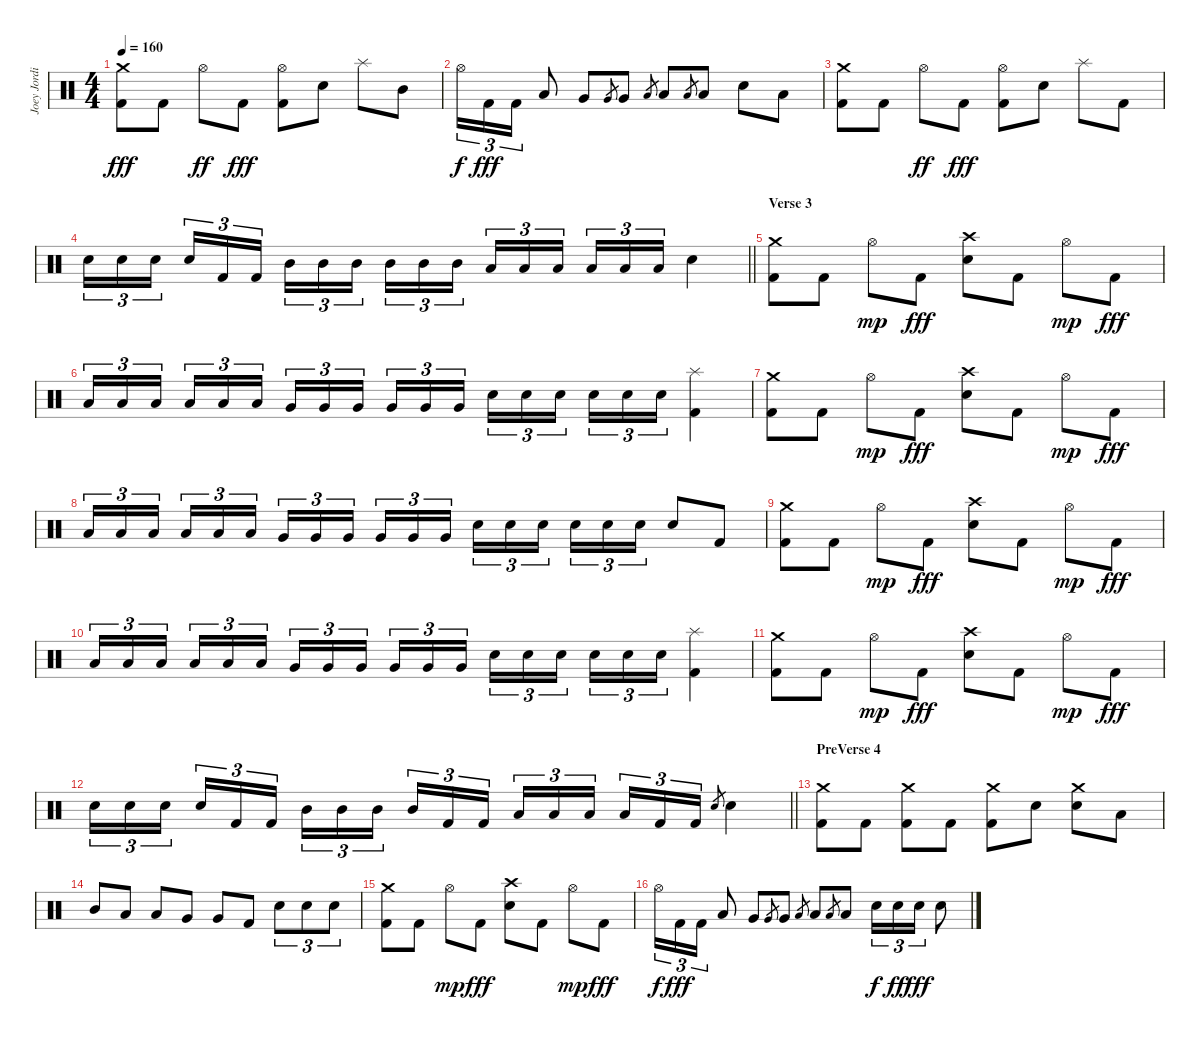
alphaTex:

\track ("Joey Jordison" "Joey Jordi") {instrument percussion}
\staff {score}
\articulation defaults
\ts (4 4)
\tempo 160
\clef neutral
\ks c
("Crash medium (hit)" "Kick (hit) 2").8{dy fff} "Kick (hit) 2".8 "Hi-Hat (open)".8{dy ff} "Kick (hit) 2".8{dy fff} ("Hi-Hat (open)" "Kick (hit) 2").8 "Electric Snare (hit)".8 "Splash (hit)".8 "Mid Tom (hit)".8 |
"Hi-Hat (open)".16{tu (3 2) dy f} "Kick (hit) 2".16{tu (3 2) dy fff} "Kick (hit) 2".16{tu (3 2)} "Low Tom (hit)".8 "Very Low Tom (hit)".8 "Very Low Tom (hit)".8{gr} "Very Low Tom (hit)".8 "Low Floor Tom (hit)".8{gr} "Low Floor Tom (hit)".8 "Low Floor Tom (hit)".8{gr} "Low Floor Tom (hit)".8 "Electric Snare (hit)".8 "Low Floor Tom (hit)".8 |
("Crash medium (hit)" "Kick (hit) 2").8 "Kick (hit) 2".8 "Hi-Hat (open)".8{dy ff} "Kick (hit) 2".8{dy fff} ("Hi-Hat (open)" "Kick (hit) 2").8 "Electric Snare (hit)".8 "Splash (hit)".8 "Kick (hit) 2".8 |
\barLineRight lightlight "Electric Snare (hit)".16{tu (3 2)} "Electric Snare (hit)".16{tu (3 2)} "Electric Snare (hit)".16{tu (3 2) beam splitsecondary} "Electric Snare (hit)".16{tu (3 2)} "Kick (hit) 2".16{tu (3 2)} "Kick (hit) 2".16{tu (3 2)} "Mid Tom (hit)".16{tu (3 2)} "Mid Tom (hit)".16{tu (3 2)} "Mid Tom (hit)".16{tu (3 2) beam splitsecondary} "Mid Tom (hit)".16{tu (3 2)} "Mid Tom (hit)".16{tu (3 2)} "Mid Tom (hit)".16{tu (3 2)} "Low Tom (hit)".16{tu (3 2)} "Low Tom (hit)".16{tu (3 2)} "Low Tom (hit)".16{tu (3 2) beam splitsecondary} "Low Tom (hit)".16{tu (3 2)} "Low Tom (hit)".16{tu (3 2)} "Low Tom (hit)".16{tu (3 2)} "Electric Snare (hit)".4
|
\section ("" "Verse 3")
("Crash medium (hit)" "Kick (hit) 2").8 "Kick (hit) 2".8 "Hi-Hat (open)".8{dy mp} "Kick (hit) 2".8{dy fff} ("Crash high (hit)" "Electric Snare (hit)").8 "Kick (hit) 2".8 "Hi-Hat (open)".8{dy mp} "Kick (hit) 2".8{dy fff} |
"Low Tom (hit)".16{tu (3 2)} "Low Tom (hit)".16{tu (3 2)} "Low Tom (hit)".16{tu (3 2) beam splitsecondary} "Low Tom (hit)".16{tu (3 2)} "Low Tom (hit)".16{tu (3 2)} "Low Tom (hit)".16{tu (3 2)} "Very Low Tom (hit)".16{tu (3 2)} "Very Low Tom (hit)".16{tu (3 2)} "Very Low Tom (hit)".16{tu (3 2) beam splitsecondary} "Very Low Tom (hit)".16{tu (3 2)} "Very Low Tom (hit)".16{tu (3 2)} "Very Low Tom (hit)".16{tu (3 2)} "Electric Snare (hit)".16{tu (3 2)} "Electric Snare (hit)".16{tu (3 2)} "Electric Snare (hit)".16{tu (3 2) beam splitsecondary} "Electric Snare (hit)".16{tu (3 2)} "Electric Snare (hit)".16{tu (3 2)} "Electric Snare (hit)".16{tu (3 2)} ("Splash (hit)" "Kick (hit) 2").4 |
("Crash medium (hit)" "Kick (hit) 2").8 "Kick (hit) 2".8 "Hi-Hat (open)".8{dy mp} "Kick (hit) 2".8{dy fff} ("Crash high (hit)" "Electric Snare (hit)").8 "Kick (hit) 2".8 "Hi-Hat (open)".8{dy mp} "Kick (hit) 2".8{dy fff} |
"Low Tom (hit)".16{tu (3 2)} "Low Tom (hit)".16{tu (3 2)} "Low Tom (hit)".16{tu (3 2) beam splitsecondary} "Low Tom (hit)".16{tu (3 2)} "Low Tom (hit)".16{tu (3 2)} "Low Tom (hit)".16{tu (3 2)} "Very Low Tom (hit)".16{tu (3 2)} "Very Low Tom (hit)".16{tu (3 2)} "Very Low Tom (hit)".16{tu (3 2) beam splitsecondary} "Very Low Tom (hit)".16{tu (3 2)} "Very Low Tom (hit)".16{tu (3 2)} "Very Low Tom (hit)".16{tu (3 2)} "Electric Snare (hit)".16{tu (3 2)} "Electric Snare (hit)".16{tu (3 2)} "Electric Snare (hit)".16{tu (3 2) beam splitsecondary} "Electric Snare (hit)".16{tu (3 2)} "Electric Snare (hit)".16{tu (3 2)} "Electric Snare (hit)".16{tu (3 2)} "Electric Snare (hit)".8 "Kick (hit) 2".8 |
("Crash medium (hit)" "Kick (hit) 2").8 "Kick (hit) 2".8 "Hi-Hat (open)".8{dy mp} "Kick (hit) 2".8{dy fff} ("Crash high (hit)" "Electric Snare (hit)").8 "Kick (hit) 2".8 "Hi-Hat (open)".8{dy mp} "Kick (hit) 2".8{dy fff} |
"Low Tom (hit)".16{tu (3 2)} "Low Tom (hit)".16{tu (3 2)} "Low Tom (hit)".16{tu (3 2) beam splitsecondary} "Low Tom (hit)".16{tu (3 2)} "Low Tom (hit)".16{tu (3 2)} "Low Tom (hit)".16{tu (3 2)} "Very Low Tom (hit)".16{tu (3 2)} "Very Low Tom (hit)".16{tu (3 2)} "Very Low Tom (hit)".16{tu (3 2) beam splitsecondary} "Very Low Tom (hit)".16{tu (3 2)} "Very Low Tom (hit)".16{tu (3 2)} "Very Low Tom (hit)".16{tu (3 2)} "Electric Snare (hit)".16{tu (3 2)} "Electric Snare (hit)".16{tu (3 2)} "Electric Snare (hit)".16{tu (3 2) beam splitsecondary} "Electric Snare (hit)".16{tu (3 2)} "Electric Snare (hit)".16{tu (3 2)} "Electric Snare (hit)".16{tu (3 2)} ("Splash (hit)" "Kick (hit) 2").4 |
("Crash medium (hit)" "Kick (hit) 2").8 "Kick (hit) 2".8 "Hi-Hat (open)".8{dy mp} "Kick (hit) 2".8{dy fff} ("Crash high (hit)" "Electric Snare (hit)").8 "Kick (hit) 2".8 "Hi-Hat (open)".8{dy mp} "Kick (hit) 2".8{dy fff} |
\barLineRight lightlight "Electric Snare (hit)".16{tu (3 2)} "Electric Snare (hit)".16{tu (3 2)} "Electric Snare (hit)".16{tu (3 2) beam splitsecondary} "Electric Snare (hit)".16{tu (3 2)} "Kick (hit) 2".16{tu (3 2)} "Kick (hit) 2".16{tu (3 2)} "Mid Tom (hit)".16{tu (3 2)} "Mid Tom (hit)".16{tu (3 2)} "Mid Tom (hit)".16{tu (3 2) beam splitsecondary} "Mid Tom (hit)".16{tu (3 2)} "Kick (hit) 2".16{tu (3 2)} "Kick (hit) 2".16{tu (3 2)} "Low Tom (hit)".16{tu (3 2)} "Low Tom (hit)".16{tu (3 2)} "Low Tom (hit)".16{tu (3 2) beam splitsecondary} "Low Tom (hit)".16{tu (3 2)} "Kick (hit) 2".16{tu (3 2)} "Kick (hit) 2".16{tu (3 2)} "Electric Snare (hit)".8{gr} "Electric Snare (hit)".4
|
\section ("" "PreVerse 4")
("Crash medium (hit)" "Kick (hit) 2").8 "Kick (hit) 2".8 ("Crash medium (hit)" "Kick (hit) 2").8 "Kick (hit) 2".8 ("Crash medium (hit)" "Kick (hit) 2").8 "Electric Snare (hit)".8 ("Crash medium (hit)" "Electric Snare (hit)").8 "Low Tom (hit)".8 |
"Mid Tom (hit)".8 "Low Tom (hit)".8 "Low Tom (hit)".8 "Very Low Tom (hit)".8 "Very Low Tom (hit)".8 "Kick (hit) 2".8 "Electric Snare (hit)".8{tu (3 2)} "Electric Snare (hit)".8{tu (3 2)} "Electric Snare (hit)".8{tu (3 2)} |
("Crash medium (hit)" "Kick (hit) 2").8 "Kick (hit) 2".8 "Hi-Hat (open)".8{dy mp} "Kick (hit) 2".8{dy fff} ("Crash high (hit)" "Electric Snare (hit)").8 "Kick (hit) 2".8 "Hi-Hat (open)".8{dy mp} "Kick (hit) 2".8{dy fff} |
"Hi-Hat (open)".16{tu (3 2) dy f} "Kick (hit) 2".16{tu (3 2) dy fff} "Kick (hit) 2".16{tu (3 2)} "Low Tom (hit)".8 "Very Low Tom (hit)".8 "Very Low Tom (hit)".8{gr} "Very Low Tom (hit)".8 "Low Floor Tom (hit)".8{gr} "Low Floor Tom (hit)".8 "Low Floor Tom (hit)".8{gr} "Low Floor Tom (hit)".8 "Electric Snare (hit)".16{tu (3 2) dy f} "Electric Snare (hit)".16{tu (3 2) dy ff} "Electric Snare (hit)".16{tu (3 2) dy fff} "Electric Snare (hit)".8
